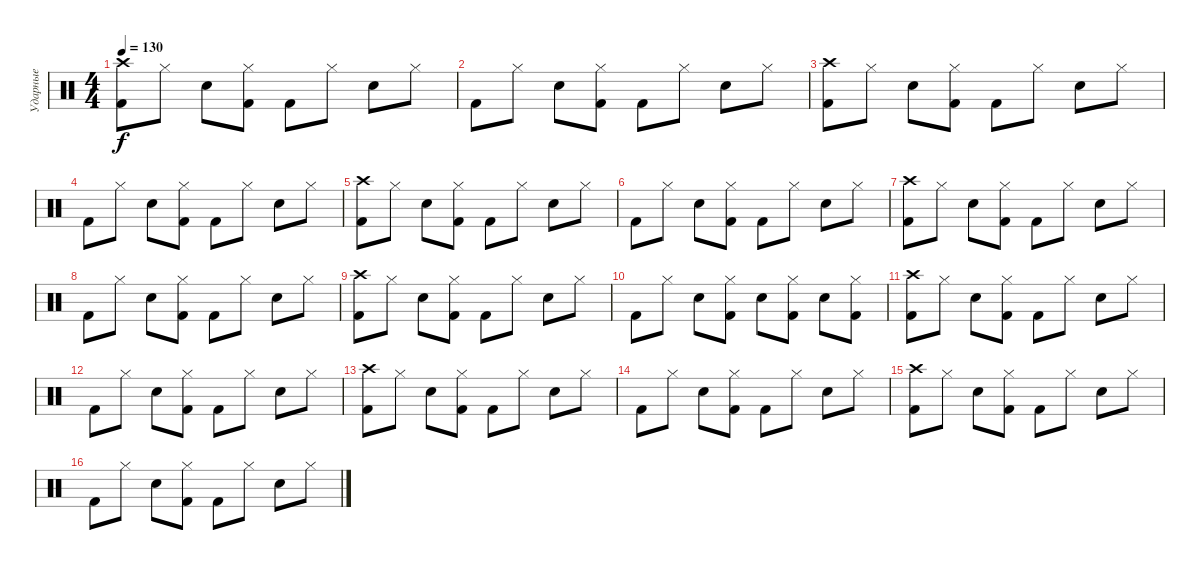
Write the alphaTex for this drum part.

\track ("Ударные" "Ударные") {instrument percussion}
\staff {score}
\articulation defaults
\ts (4 4)
\tempo 130
\clef neutral
\ks c
("Kick (hit) 2" "Crash high (hit)").8{dy f} "Hi-Hat (closed)".8 "Electric Snare (hit)".8 ("Kick (hit) 2" "Hi-Hat (closed)").8 "Kick (hit) 2".8 "Hi-Hat (closed)".8 "Electric Snare (hit)".8 "Hi-Hat (closed)".8 |
"Kick (hit) 2".8 "Hi-Hat (closed)".8 "Electric Snare (hit)".8 ("Kick (hit) 2" "Hi-Hat (closed)").8 "Kick (hit) 2".8 "Hi-Hat (closed)".8 "Electric Snare (hit)".8 "Hi-Hat (closed)".8 |
("Kick (hit) 2" "Crash high (hit)").8 "Hi-Hat (closed)".8 "Electric Snare (hit)".8 ("Kick (hit) 2" "Hi-Hat (closed)").8 "Kick (hit) 2".8 "Hi-Hat (closed)".8 "Electric Snare (hit)".8 "Hi-Hat (closed)".8 |
"Kick (hit) 2".8 "Hi-Hat (closed)".8 "Electric Snare (hit)".8 ("Kick (hit) 2" "Hi-Hat (closed)").8 "Kick (hit) 2".8 "Hi-Hat (closed)".8 "Electric Snare (hit)".8 "Hi-Hat (closed)".8 |
("Kick (hit) 2" "Crash high (hit)").8 "Hi-Hat (closed)".8 "Electric Snare (hit)".8 ("Kick (hit) 2" "Hi-Hat (closed)").8 "Kick (hit) 2".8 "Hi-Hat (closed)".8 "Electric Snare (hit)".8 "Hi-Hat (closed)".8 |
"Kick (hit) 2".8 "Hi-Hat (closed)".8 "Electric Snare (hit)".8 ("Kick (hit) 2" "Hi-Hat (closed)").8 "Kick (hit) 2".8 "Hi-Hat (closed)".8 "Electric Snare (hit)".8 "Hi-Hat (closed)".8 |
("Kick (hit) 2" "Crash high (hit)").8 "Hi-Hat (closed)".8 "Electric Snare (hit)".8 ("Kick (hit) 2" "Hi-Hat (closed)").8 "Kick (hit) 2".8 "Hi-Hat (closed)".8 "Electric Snare (hit)".8 "Hi-Hat (closed)".8 |
"Kick (hit) 2".8 "Hi-Hat (closed)".8 "Electric Snare (hit)".8 ("Kick (hit) 2" "Hi-Hat (closed)").8 "Kick (hit) 2".8 "Hi-Hat (closed)".8 "Electric Snare (hit)".8 "Hi-Hat (closed)".8 |
("Kick (hit) 2" "Crash high (hit)").8 "Hi-Hat (closed)".8 "Electric Snare (hit)".8 ("Kick (hit) 2" "Hi-Hat (closed)").8 "Kick (hit) 2".8 "Hi-Hat (closed)".8 "Electric Snare (hit)".8 "Hi-Hat (closed)".8 |
"Kick (hit) 2".8 "Hi-Hat (closed)".8 "Electric Snare (hit)".8 ("Kick (hit) 2" "Hi-Hat (closed)").8 "Electric Snare (hit)".8 ("Kick (hit) 2" "Hi-Hat (closed)").8 "Electric Snare (hit)".8 ("Kick (hit) 2" "Hi-Hat (closed)").8 |
("Kick (hit) 2" "Crash high (hit)").8 "Hi-Hat (closed)".8 "Electric Snare (hit)".8 ("Kick (hit) 2" "Hi-Hat (closed)").8 "Kick (hit) 2".8 "Hi-Hat (closed)".8 "Electric Snare (hit)".8 "Hi-Hat (closed)".8 |
"Kick (hit) 2".8 "Hi-Hat (closed)".8 "Electric Snare (hit)".8 ("Kick (hit) 2" "Hi-Hat (closed)").8 "Kick (hit) 2".8 "Hi-Hat (closed)".8 "Electric Snare (hit)".8 "Hi-Hat (closed)".8 |
("Kick (hit) 2" "Crash high (hit)").8 "Hi-Hat (closed)".8 "Electric Snare (hit)".8 ("Kick (hit) 2" "Hi-Hat (closed)").8 "Kick (hit) 2".8 "Hi-Hat (closed)".8 "Electric Snare (hit)".8 "Hi-Hat (closed)".8 |
"Kick (hit) 2".8 "Hi-Hat (closed)".8 "Electric Snare (hit)".8 ("Kick (hit) 2" "Hi-Hat (closed)").8 "Kick (hit) 2".8 "Hi-Hat (closed)".8 "Electric Snare (hit)".8 "Hi-Hat (closed)".8 |
("Kick (hit) 2" "Crash high (hit)").8 "Hi-Hat (closed)".8 "Electric Snare (hit)".8 ("Kick (hit) 2" "Hi-Hat (closed)").8 "Kick (hit) 2".8 "Hi-Hat (closed)".8 "Electric Snare (hit)".8 "Hi-Hat (closed)".8 |
"Kick (hit) 2".8 "Hi-Hat (closed)".8 "Electric Snare (hit)".8 ("Kick (hit) 2" "Hi-Hat (closed)").8 "Kick (hit) 2".8 "Hi-Hat (closed)".8 "Electric Snare (hit)".8 "Hi-Hat (closed)".8
